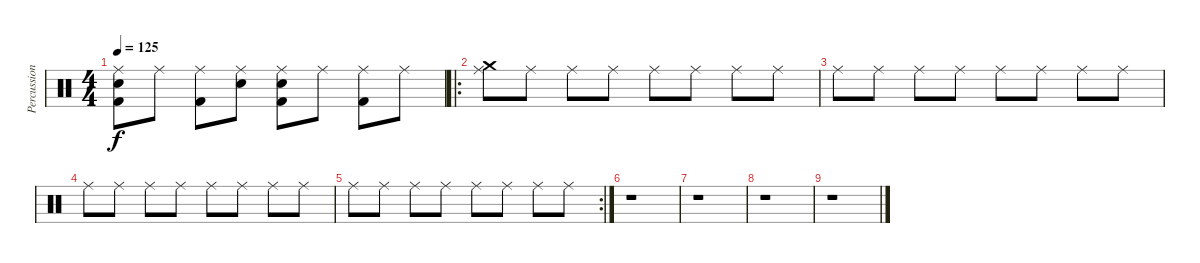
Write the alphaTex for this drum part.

\track ("Percussions" "Percussion") {instrument percussion}
\staff {score}
\articulation defaults
\ts (4 4)
\tempo 125
\clef neutral
\ks c
("Snare (hit) 2" "Kick (hit) 2" "Ride (middle)").8{dy f} "Ride (middle)".8 ("Kick (hit) 2" "Ride (middle)").8 ("Snare (hit) 2" "Ride (middle)").8 ("Snare (hit) 2" "Kick (hit) 2" "Ride (middle)").8 "Ride (middle)".8 ("Kick (hit) 2" "Ride (middle)").8 "Ride (middle)".8 |
\ro
("Crash medium (hit)" "Ride (middle)").8 "Ride (middle)".8 "Ride (middle)".8 "Ride (middle)".8 "Ride (middle)".8 "Ride (middle)".8 "Ride (middle)".8 "Ride (middle)".8 |
"Ride (middle)".8 "Ride (middle)".8 "Ride (middle)".8 "Ride (middle)".8 "Ride (middle)".8 "Ride (middle)".8 "Ride (middle)".8 "Ride (middle)".8 |
"Ride (middle)".8 "Ride (middle)".8 "Ride (middle)".8 "Ride (middle)".8 "Ride (middle)".8 "Ride (middle)".8 "Ride (middle)".8 "Ride (middle)".8 |
\rc 2 "Ride (middle)".8 "Ride (middle)".8 "Ride (middle)".8 "Ride (middle)".8 "Ride (middle)".8 "Ride (middle)".8 "Ride (middle)".8 "Ride (middle)".8
|
r.1 |
r.1 |
r.1 |
r.1
